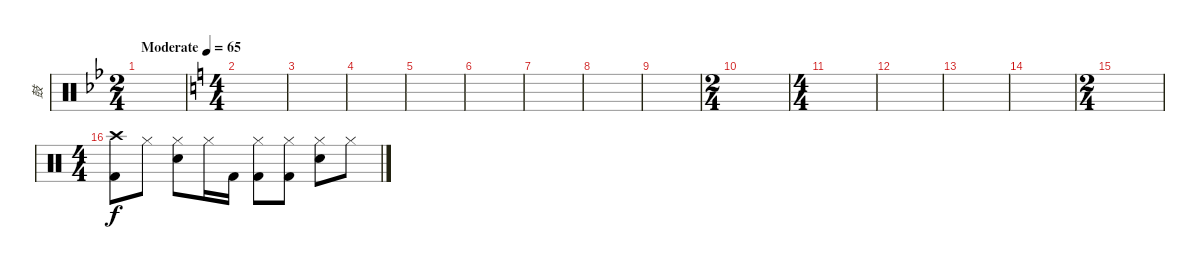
\track ("鼓" "鼓") {instrument percussion}
\staff {score}
\articulation defaults
\ts (2 4)
\tempo (65 "Moderate")
\clef neutral
\ks bb
|
\ts (4 4)
\ks c
|
|
|
|
|
|
|
|
\ts (2 4)
|
\ts (4 4)
|
|
|
|
\ts (2 4)
|
\ts (4 4)
("Crash high (hit)" "Kick (hit) 2").8 "Hi-Hat (closed)".8 ("Hi-Hat (closed)" "Snare (hit) 2").8 "Hi-Hat (closed)".16 "Kick (hit) 2".16 ("Hi-Hat (closed)" "Kick (hit) 2").8 ("Hi-Hat (closed)" "Kick (hit) 2").8 ("Hi-Hat (closed)" "Snare (hit) 2").8 "Hi-Hat (closed)".8
